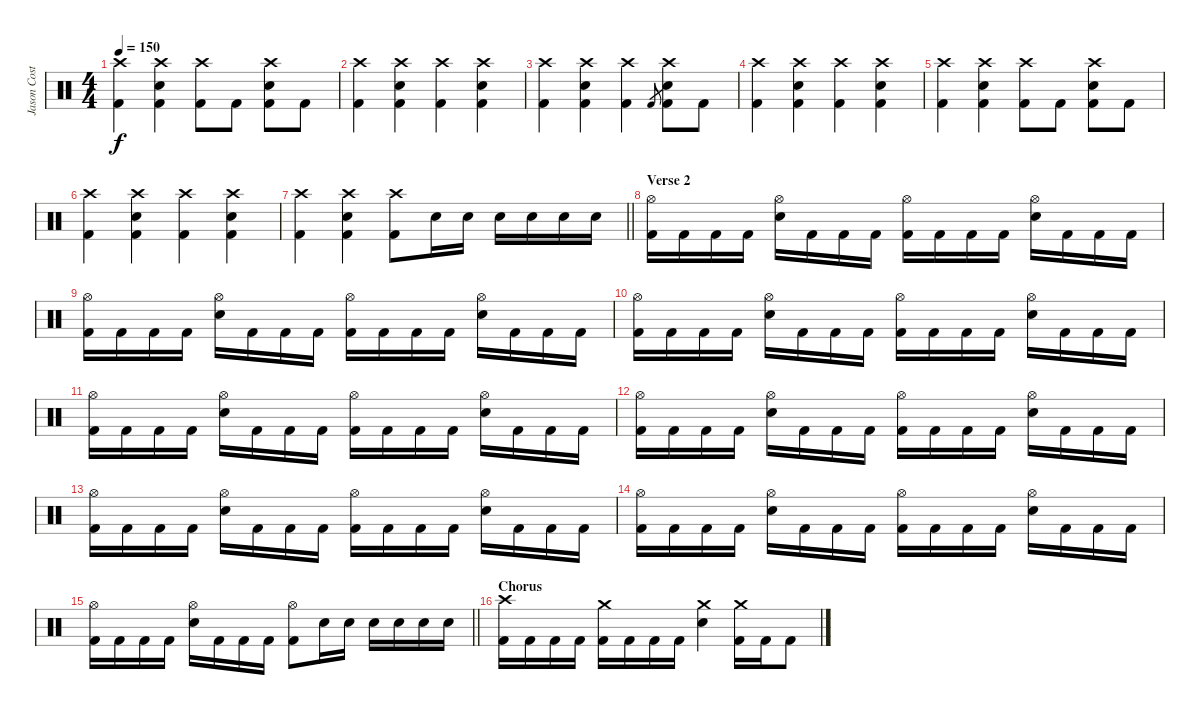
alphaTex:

\track ("Jason Costa" "Jason Cost") {instrument percussion}
\staff {score}
\articulation defaults
\ts (4 4)
\tempo 150
\clef neutral
\ks c
("Crash high (hit)" "Kick (hit) 2").4{dy f} ("Crash high (hit)" "Electric Snare (hit)" "Kick (hit) 2").4 ("Crash high (hit)" "Kick (hit) 2").8 "Kick (hit) 2".8 ("Crash high (hit)" "Electric Snare (hit)" "Kick (hit) 2").8 "Kick (hit) 2".8 |
("Crash high (hit)" "Kick (hit) 2").4 ("Crash high (hit)" "Electric Snare (hit)" "Kick (hit) 2").4 ("Crash high (hit)" "Kick (hit) 2").4 ("Crash high (hit)" "Electric Snare (hit)" "Kick (hit) 2").4 |
("Crash high (hit)" "Kick (hit) 2").4 ("Crash high (hit)" "Electric Snare (hit)" "Kick (hit) 2").4 ("Crash high (hit)" "Kick (hit) 2").4 "Kick (hit) 2".8{gr} ("Crash high (hit)" "Electric Snare (hit)" "Kick (hit) 2").8 "Kick (hit) 2".8 |
("Crash high (hit)" "Kick (hit) 2").4 ("Crash high (hit)" "Electric Snare (hit)" "Kick (hit) 2").4 ("Crash high (hit)" "Kick (hit) 2").4 ("Crash high (hit)" "Electric Snare (hit)" "Kick (hit) 2").4 |
("Crash high (hit)" "Kick (hit) 2").4 ("Crash high (hit)" "Electric Snare (hit)" "Kick (hit) 2").4 ("Crash high (hit)" "Kick (hit) 2").8 "Kick (hit) 2".8 ("Crash high (hit)" "Electric Snare (hit)" "Kick (hit) 2").8 "Kick (hit) 2".8 |
("Crash high (hit)" "Kick (hit) 2").4 ("Crash high (hit)" "Electric Snare (hit)" "Kick (hit) 2").4 ("Crash high (hit)" "Kick (hit) 2").4 ("Crash high (hit)" "Electric Snare (hit)" "Kick (hit) 2").4 |
\barLineRight lightlight
("Crash high (hit)" "Kick (hit) 2").4 ("Crash high (hit)" "Electric Snare (hit)" "Kick (hit) 2").4 ("Crash high (hit)" "Kick (hit) 2").8 "Electric Snare (hit)".16 "Electric Snare (hit)".16 "Electric Snare (hit)".16 "Electric Snare (hit)".16 "Electric Snare (hit)".16 "Electric Snare (hit)".16 |
\section ("" "Verse 2")
("Hi-Hat (open)" "Kick (hit) 2").16 "Kick (hit) 2".16 "Kick (hit) 2".16 "Kick (hit) 2".16 ("Hi-Hat (open)" "Electric Snare (hit)").16 "Kick (hit) 2".16 "Kick (hit) 2".16 "Kick (hit) 2".16 ("Hi-Hat (open)" "Kick (hit) 2").16 "Kick (hit) 2".16 "Kick (hit) 2".16 "Kick (hit) 2".16 ("Hi-Hat (open)" "Electric Snare (hit)").16 "Kick (hit) 2".16 "Kick (hit) 2".16 "Kick (hit) 2".16 |
("Hi-Hat (open)" "Kick (hit) 2").16 "Kick (hit) 2".16 "Kick (hit) 2".16 "Kick (hit) 2".16 ("Hi-Hat (open)" "Electric Snare (hit)").16 "Kick (hit) 2".16 "Kick (hit) 2".16 "Kick (hit) 2".16 ("Hi-Hat (open)" "Kick (hit) 2").16 "Kick (hit) 2".16 "Kick (hit) 2".16 "Kick (hit) 2".16 ("Hi-Hat (open)" "Electric Snare (hit)").16 "Kick (hit) 2".16 "Kick (hit) 2".16 "Kick (hit) 2".16 |
("Hi-Hat (open)" "Kick (hit) 2").16 "Kick (hit) 2".16 "Kick (hit) 2".16 "Kick (hit) 2".16 ("Hi-Hat (open)" "Electric Snare (hit)").16 "Kick (hit) 2".16 "Kick (hit) 2".16 "Kick (hit) 2".16 ("Hi-Hat (open)" "Kick (hit) 2").16 "Kick (hit) 2".16 "Kick (hit) 2".16 "Kick (hit) 2".16 ("Hi-Hat (open)" "Electric Snare (hit)").16 "Kick (hit) 2".16 "Kick (hit) 2".16 "Kick (hit) 2".16 |
("Hi-Hat (open)" "Kick (hit) 2").16 "Kick (hit) 2".16 "Kick (hit) 2".16 "Kick (hit) 2".16 ("Hi-Hat (open)" "Electric Snare (hit)").16 "Kick (hit) 2".16 "Kick (hit) 2".16 "Kick (hit) 2".16 ("Hi-Hat (open)" "Kick (hit) 2").16 "Kick (hit) 2".16 "Kick (hit) 2".16 "Kick (hit) 2".16 ("Hi-Hat (open)" "Electric Snare (hit)").16 "Kick (hit) 2".16 "Kick (hit) 2".16 "Kick (hit) 2".16 |
("Hi-Hat (open)" "Kick (hit) 2").16 "Kick (hit) 2".16 "Kick (hit) 2".16 "Kick (hit) 2".16 ("Hi-Hat (open)" "Electric Snare (hit)").16 "Kick (hit) 2".16 "Kick (hit) 2".16 "Kick (hit) 2".16 ("Hi-Hat (open)" "Kick (hit) 2").16 "Kick (hit) 2".16 "Kick (hit) 2".16 "Kick (hit) 2".16 ("Hi-Hat (open)" "Electric Snare (hit)").16 "Kick (hit) 2".16 "Kick (hit) 2".16 "Kick (hit) 2".16 |
("Hi-Hat (open)" "Kick (hit) 2").16 "Kick (hit) 2".16 "Kick (hit) 2".16 "Kick (hit) 2".16 ("Hi-Hat (open)" "Electric Snare (hit)").16 "Kick (hit) 2".16 "Kick (hit) 2".16 "Kick (hit) 2".16 ("Hi-Hat (open)" "Kick (hit) 2").16 "Kick (hit) 2".16 "Kick (hit) 2".16 "Kick (hit) 2".16 ("Hi-Hat (open)" "Electric Snare (hit)").16 "Kick (hit) 2".16 "Kick (hit) 2".16 "Kick (hit) 2".16 |
("Hi-Hat (open)" "Kick (hit) 2").16 "Kick (hit) 2".16 "Kick (hit) 2".16 "Kick (hit) 2".16 ("Hi-Hat (open)" "Electric Snare (hit)").16 "Kick (hit) 2".16 "Kick (hit) 2".16 "Kick (hit) 2".16 ("Hi-Hat (open)" "Kick (hit) 2").16 "Kick (hit) 2".16 "Kick (hit) 2".16 "Kick (hit) 2".16 ("Hi-Hat (open)" "Electric Snare (hit)").16 "Kick (hit) 2".16 "Kick (hit) 2".16 "Kick (hit) 2".16 |
\barLineRight lightlight
("Hi-Hat (open)" "Kick (hit) 2").16 "Kick (hit) 2".16 "Kick (hit) 2".16 "Kick (hit) 2".16 ("Hi-Hat (open)" "Electric Snare (hit)").16 "Kick (hit) 2".16 "Kick (hit) 2".16 "Kick (hit) 2".16 ("Hi-Hat (open)" "Kick (hit) 2").8 "Electric Snare (hit)".16 "Electric Snare (hit)".16 "Electric Snare (hit)".16 "Electric Snare (hit)".16 "Electric Snare (hit)".16 "Electric Snare (hit)".16 |
\section ("" "Chorus")
("Crash high (hit)" "Kick (hit) 2").16 "Kick (hit) 2".16 "Kick (hit) 2".16 "Kick (hit) 2".16 ("Crash medium (hit)" "Kick (hit) 2").16 "Kick (hit) 2".16 "Kick (hit) 2".16 "Kick (hit) 2".16 ("Crash medium (hit)" "Electric Snare (hit)").4 ("Crash medium (hit)" "Kick (hit) 2").16 "Kick (hit) 2".16 "Kick (hit) 2".8
